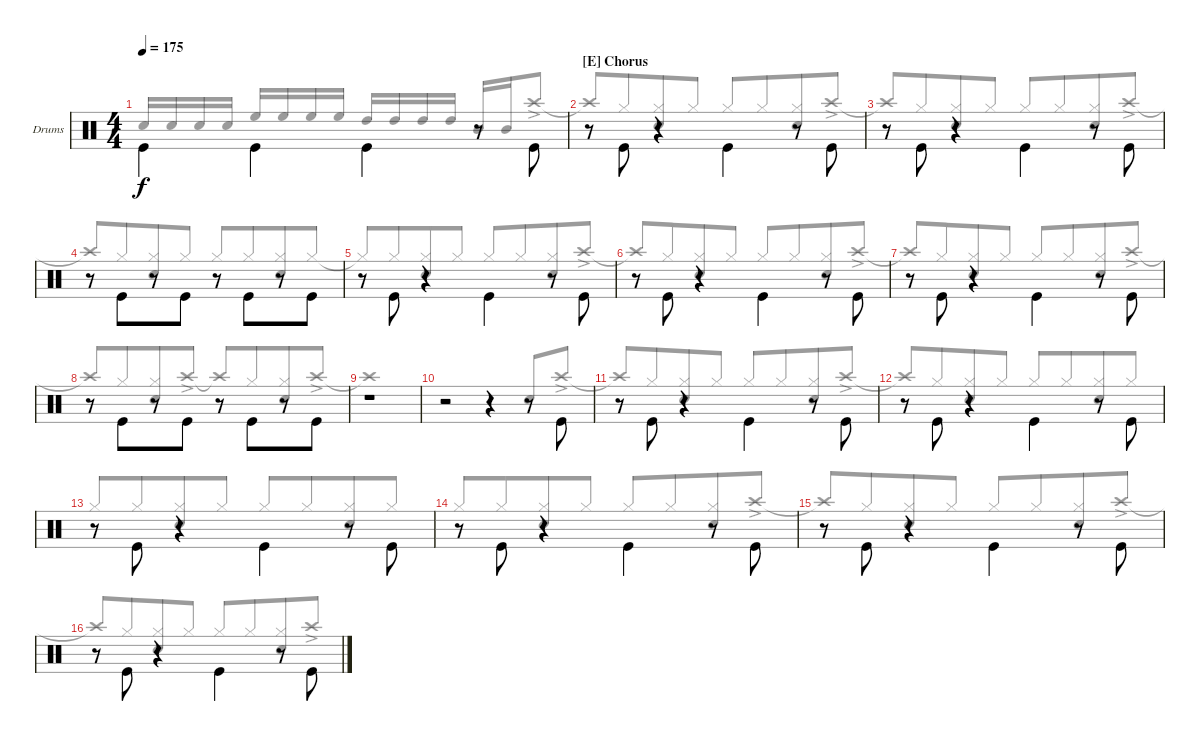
\defaultSystemsLayout 4
\bracketExtendMode groupsimilarinstruments
\firstSystemTrackNameOrientation horizontal
\otherSystemsTrackNameOrientation horizontal
\track ("Drum" "Drums") {instrument percussion}
\staff {score}
\articulation defaults
\voice
\ts (4 4)
\tempo 175
\clef neutral
\scale
1.02648
\ks c "Kick (hit)".4{dy f beam invert} "Kick (hit)".4{beam invert} "Kick (hit)".4{beam invert}
r.8 "Kick (hit)".8{beam invert} |
\section ("E" "Chorus")
\scale
0.973518 r.8 "Kick (hit)".8{beam invert} r.4 "Kick (hit)".4{beam invert} r.8 "Kick (hit)".8{beam invert} |
\scale
1.02648 r.8 "Kick (hit)".8{beam invert} r.4 "Kick (hit)".4{beam invert} r.8 "Kick (hit)".8{beam invert} |
\scale
0.973518 r.8 "Kick (hit)".8{beam invert beam merge} r.8{beam merge} "Kick (hit)".8 r.8 "Kick (hit)".8{beam invert beam merge} r.8{beam merge} "Kick (hit)".8 |
\scale
1.02648 r.8 "Kick (hit)".8{beam invert} r.4 "Kick (hit)".4{beam invert} r.8 "Kick (hit)".8{beam invert} |
\scale
0.973518 r.8 "Kick (hit)".8{beam invert} r.4 "Kick (hit)".4{beam invert} r.8 "Kick (hit)".8{beam invert} |
\scale
1.02648 r.8 "Kick (hit)".8{beam invert} r.4 "Kick (hit)".4{beam invert} r.8 "Kick (hit)".8{beam invert} |
\scale
0.973518 r.8 "Kick (hit)".8{beam invert beam merge} r.8{beam merge} "Kick (hit)".8 r.8 "Kick (hit)".8{beam invert beam merge} r.8{beam merge} "Kick (hit)".8 |
\scale
1.05675 r.1 |
\scale
0.943253 r.2 r.4 r.8 "Kick (hit)".8{beam invert} |
\scale
1.02648 r.8 "Kick (hit)".8{beam invert} r.4 "Kick (hit)".4{beam invert} r.8 "Kick (hit)".8{beam invert} |
\scale
0.973518 r.8 "Kick (hit)".8{beam invert} r.4 "Kick (hit)".4{beam invert} r.8 "Kick (hit)".8{beam invert} |
\scale
1.02648 r.8 "Kick (hit)".8{beam invert} r.4 "Kick (hit)".4{beam invert} r.8 "Kick (hit)".8{beam invert} |
\scale
0.973518 r.8 "Kick (hit)".8{beam invert} r.4 "Kick (hit)".4{beam invert} r.8 "Kick (hit)".8{beam invert} |
\scale
1.02648 r.8 "Kick (hit)".8{beam invert} r.4 "Kick (hit)".4{beam invert} r.8 "Kick (hit)".8{beam invert} |
\scale
0.973518 r.8 "Kick (hit)".8{beam invert} r.4 "Kick (hit)".4{beam invert} r.8 "Kick (hit)".8{beam invert}
\voice
\clef neutral
\ottava regular
\simile none
\scale
1.02648
\ks c "Snare (hit) 2".16{dy f beam invert} "Snare (hit) 2".16 "Snare (hit) 2".16 "Snare (hit) 2".16 "High Floor Tom (hit)".16{beam invert} "High Floor Tom (hit)".16 "High Floor Tom (hit)".16 "High Floor Tom (hit)".16 "High Tom (hit)".16{beam invert} "High Tom (hit)".16 "High Tom (hit)".16 "High Tom (hit)".16 "Mid Tom (hit)".16{beam invert} "Mid Tom (hit)".16 "Crash high (hit)"{ac}.8
|
\scale
0.973518 "Crash high (hit)"{t}.8{beam invert beam merge} "Hi-Hat (closed)".8{beam merge} ("Hi-Hat (closed)" "Snare (hit) 2").8{beam merge} "Hi-Hat (closed)".8 "Hi-Hat (closed)".8{beam invert beam merge} "Hi-Hat (closed)".8{beam merge} ("Hi-Hat (closed)" "Snare (hit) 2").8{beam merge} "Crash high (hit)"{ac}.8 |
\scale
1.02648 "Crash high (hit)"{t}.8{beam invert beam merge} "Hi-Hat (closed)".8{beam merge} ("Hi-Hat (closed)" "Snare (hit) 2").8{beam merge} "Hi-Hat (closed)".8 "Hi-Hat (closed)".8{beam invert beam merge} "Hi-Hat (closed)".8{beam merge} ("Hi-Hat (closed)" "Snare (hit) 2").8{beam merge} "Crash high (hit)"{ac}.8 |
\scale
0.973518 "Crash high (hit)"{t}.8{beam invert beam merge} "Hi-Hat (closed)".8{beam merge} ("Hi-Hat (closed)" "Snare (hit) 2").8{beam merge} "Hi-Hat (closed)".8 "Hi-Hat (closed)".8{beam invert beam merge} "Hi-Hat (closed)".8{beam merge} ("Hi-Hat (closed)" "Snare (hit) 2").8{beam merge} "Hi-Hat (closed)".8 |
\scale
1.02648 "Hi-Hat (closed)"{t}.8{beam invert beam merge} "Hi-Hat (closed)".8{beam merge} ("Hi-Hat (closed)" "Snare (hit) 2").8{beam merge} "Hi-Hat (closed)".8 "Hi-Hat (closed)".8{beam invert beam merge} "Hi-Hat (closed)".8{beam merge} ("Hi-Hat (closed)" "Snare (hit) 2").8{beam merge} "Crash high (hit)"{ac}.8 |
\scale
0.973518 "Crash high (hit)"{t}.8{beam invert beam merge} "Hi-Hat (closed)".8{beam merge} ("Hi-Hat (closed)" "Snare (hit) 2").8{beam merge} "Hi-Hat (closed)".8 "Hi-Hat (closed)".8{beam invert beam merge} "Hi-Hat (closed)".8{beam merge} ("Hi-Hat (closed)" "Snare (hit) 2").8{beam merge} "Crash high (hit)"{ac}.8 |
\scale
1.02648 "Crash high (hit)"{t}.8{beam invert beam merge} "Hi-Hat (closed)".8{beam merge} ("Hi-Hat (closed)" "Snare (hit) 2").8{beam merge} "Hi-Hat (closed)".8 "Hi-Hat (closed)".8{beam invert beam merge} "Hi-Hat (closed)".8{beam merge} ("Hi-Hat (closed)" "Snare (hit) 2").8{beam merge} "Crash high (hit)"{ac}.8 |
\scale
0.973518 "Crash high (hit)"{t}.8{beam invert beam merge} "Hi-Hat (closed)".8{beam merge} ("Hi-Hat (closed)" "Snare (hit) 2").8{beam merge} "Crash high (hit)"{ac}.8 "Crash high (hit)"{t}.8{beam invert beam merge} "Hi-Hat (closed)".8{beam merge} ("Hi-Hat (closed)" "Snare (hit) 2").8{beam merge} "Crash high (hit)"{ac}.8 |
\scale
1.05675 "Crash high (hit)"{t}.1{beam invert} |
\scale
0.943253 r.2 r.4 "Snare (hit) 2".8{beam invert} "Crash high (hit)"{ac}.8 |
\scale
1.02648 "Crash high (hit)"{t}.8{beam invert beam merge} "Hi-Hat (closed)".8{beam merge} ("Hi-Hat (closed)" "Snare (hit) 2").8{beam merge} "Hi-Hat (closed)".8 "Hi-Hat (closed)".8{beam invert beam merge} "Hi-Hat (closed)".8{beam merge} ("Hi-Hat (closed)" "Snare (hit) 2").8{beam merge} "Crash high (hit)"{ac}.8 |
\scale
0.973518 "Crash high (hit)"{t}.8{beam invert beam merge} "Hi-Hat (closed)".8{beam merge} ("Hi-Hat (closed)" "Snare (hit) 2").8{beam merge} "Hi-Hat (closed)".8 "Hi-Hat (closed)".8{beam invert beam merge} "Hi-Hat (closed)".8{beam merge} ("Hi-Hat (closed)" "Snare (hit) 2").8{beam merge} "Hi-Hat (closed)".8 |
\scale
1.02648 "Hi-Hat (closed)".8{beam invert beam merge} "Hi-Hat (closed)".8{beam merge} ("Hi-Hat (closed)" "Snare (hit) 2").8{beam merge} "Hi-Hat (closed)".8 "Hi-Hat (closed)".8{beam invert beam merge} "Hi-Hat (closed)".8{beam merge} ("Hi-Hat (closed)" "Snare (hit) 2").8{beam merge} "Hi-Hat (closed)".8 |
\scale
0.973518 "Hi-Hat (closed)".8{beam invert beam merge} "Hi-Hat (closed)".8{beam merge} ("Hi-Hat (closed)" "Snare (hit) 2").8{beam merge} "Hi-Hat (closed)".8 "Hi-Hat (closed)".8{beam invert beam merge} "Hi-Hat (closed)".8{beam merge} ("Hi-Hat (closed)" "Snare (hit) 2").8{beam merge} "Crash high (hit)"{ac}.8 |
\scale
1.02648 "Crash high (hit)"{t}.8{beam invert beam merge} "Hi-Hat (closed)".8{beam merge} ("Hi-Hat (closed)" "Snare (hit) 2").8{beam merge} "Hi-Hat (closed)".8 "Hi-Hat (closed)".8{beam invert beam merge} "Hi-Hat (closed)".8{beam merge} ("Hi-Hat (closed)" "Snare (hit) 2").8{beam merge} "Crash high (hit)"{ac}.8 |
\scale
0.973518 "Crash high (hit)"{t}.8{beam invert beam merge} "Hi-Hat (closed)".8{beam merge} ("Hi-Hat (closed)" "Snare (hit) 2").8{beam merge} "Hi-Hat (closed)".8 "Hi-Hat (closed)".8{beam invert beam merge} "Hi-Hat (closed)".8{beam merge} ("Hi-Hat (closed)" "Snare (hit) 2").8{beam merge} "Crash high (hit)"{ac}.8
